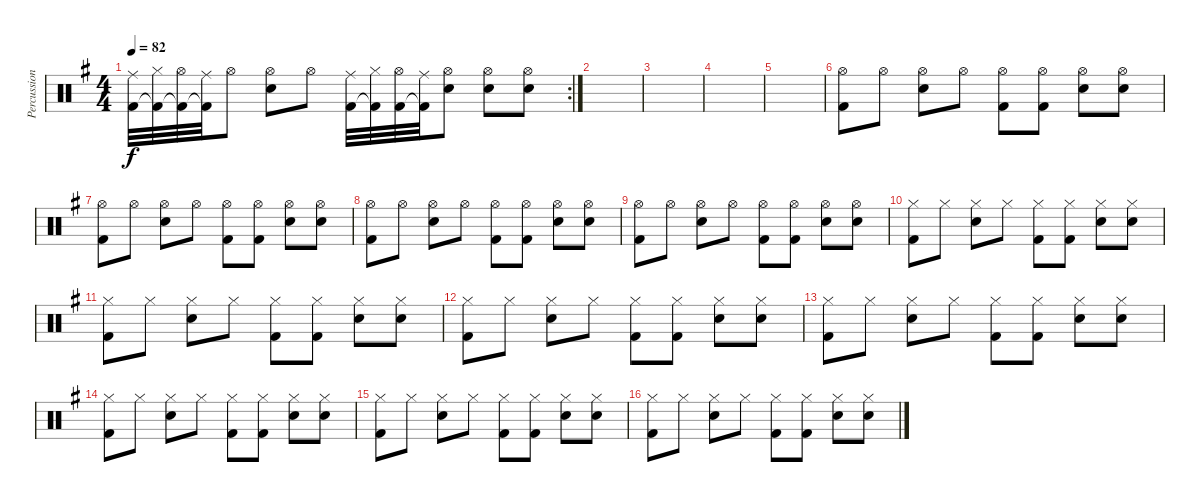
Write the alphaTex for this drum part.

\track ("Percussions" "Percussion") {instrument percussion}
\staff {score}
\articulation defaults
\rc 2
\ts (4 4)
\tempo 82
\clef neutral
\ks g
("Ride (middle)" "Kick (hit) 2").32{dy f} ("Hi-Hat (closed)" "Kick (hit) 2"{t}).32 ("Hi-Hat (open)" "Kick (hit) 2"{t}).32 ("Ride (middle)" "Kick (hit) 2"{t}).32 "Hi-Hat (open)".8 ("Hi-Hat (open)" "Snare (hit) 2").8 "Hi-Hat (open)".8 ("Ride (middle)" "Kick (hit) 2").32 ("Hi-Hat (closed)" "Kick (hit) 2"{t}).32 ("Hi-Hat (open)" "Kick (hit) 2").32 ("Ride (middle)" "Kick (hit) 2"{t}).32 ("Hi-Hat (open)" "Snare (hit) 2").8 ("Hi-Hat (open)" "Snare (hit) 2").8 ("Hi-Hat (open)" "Snare (hit) 2").8 |
|
|
|
|
("Hi-Hat (open)" "Kick (hit) 2").8 "Hi-Hat (open)".8 ("Hi-Hat (open)" "Snare (hit) 2").8 "Hi-Hat (open)".8 ("Hi-Hat (open)" "Kick (hit) 2").8 ("Hi-Hat (open)" "Kick (hit) 2").8 ("Hi-Hat (open)" "Snare (hit) 2").8 ("Hi-Hat (open)" "Snare (hit) 2").8 |
("Hi-Hat (open)" "Kick (hit) 2").8 "Hi-Hat (open)".8 ("Hi-Hat (open)" "Snare (hit) 2").8 "Hi-Hat (open)".8 ("Hi-Hat (open)" "Kick (hit) 2").8 ("Hi-Hat (open)" "Kick (hit) 2").8 ("Hi-Hat (open)" "Snare (hit) 2").8 ("Hi-Hat (open)" "Snare (hit) 2").8 |
("Hi-Hat (open)" "Kick (hit) 2").8 "Hi-Hat (open)".8 ("Hi-Hat (open)" "Snare (hit) 2").8 "Hi-Hat (open)".8 ("Hi-Hat (open)" "Kick (hit) 2").8 ("Hi-Hat (open)" "Kick (hit) 2").8 ("Hi-Hat (open)" "Snare (hit) 2").8 ("Hi-Hat (open)" "Snare (hit) 2").8 |
("Hi-Hat (open)" "Kick (hit) 2").8 "Hi-Hat (open)".8 ("Hi-Hat (open)" "Snare (hit) 2").8 "Hi-Hat (open)".8 ("Hi-Hat (open)" "Kick (hit) 2").8 ("Hi-Hat (open)" "Kick (hit) 2").8 ("Hi-Hat (open)" "Snare (hit) 2").8 ("Hi-Hat (open)" "Snare (hit) 2").8 |
("Hi-Hat (closed)" "Kick (hit) 2").8 "Hi-Hat (closed)".8 ("Hi-Hat (closed)" "Snare (hit) 2").8 "Hi-Hat (closed)".8 ("Hi-Hat (closed)" "Kick (hit) 2").8 ("Hi-Hat (closed)" "Kick (hit) 2").8 ("Hi-Hat (closed)" "Snare (hit) 2").8 ("Hi-Hat (closed)" "Snare (hit) 2").8 |
("Hi-Hat (closed)" "Kick (hit) 2").8 "Hi-Hat (closed)".8 ("Hi-Hat (closed)" "Snare (hit) 2").8 "Hi-Hat (closed)".8 ("Hi-Hat (closed)" "Kick (hit) 2").8 ("Hi-Hat (closed)" "Kick (hit) 2").8 ("Hi-Hat (closed)" "Snare (hit) 2").8 ("Hi-Hat (closed)" "Snare (hit) 2").8 |
("Hi-Hat (closed)" "Kick (hit) 2").8 "Hi-Hat (closed)".8 ("Hi-Hat (closed)" "Snare (hit) 2").8 "Hi-Hat (closed)".8 ("Hi-Hat (closed)" "Kick (hit) 2").8 ("Hi-Hat (closed)" "Kick (hit) 2").8 ("Hi-Hat (closed)" "Snare (hit) 2").8 ("Hi-Hat (closed)" "Snare (hit) 2").8 |
("Hi-Hat (closed)" "Kick (hit) 2").8 "Hi-Hat (closed)".8 ("Hi-Hat (closed)" "Snare (hit) 2").8 "Hi-Hat (closed)".8 ("Hi-Hat (closed)" "Kick (hit) 2").8 ("Hi-Hat (closed)" "Kick (hit) 2").8 ("Hi-Hat (closed)" "Snare (hit) 2").8 ("Hi-Hat (closed)" "Snare (hit) 2").8 |
("Hi-Hat (closed)" "Kick (hit) 2").8 "Hi-Hat (closed)".8 ("Hi-Hat (closed)" "Snare (hit) 2").8 "Hi-Hat (closed)".8 ("Hi-Hat (closed)" "Kick (hit) 2").8 ("Hi-Hat (closed)" "Kick (hit) 2").8 ("Hi-Hat (closed)" "Snare (hit) 2").8 ("Hi-Hat (closed)" "Snare (hit) 2").8 |
("Hi-Hat (closed)" "Kick (hit) 2").8 "Hi-Hat (closed)".8 ("Hi-Hat (closed)" "Snare (hit) 2").8 "Hi-Hat (closed)".8 ("Hi-Hat (closed)" "Kick (hit) 2").8 ("Hi-Hat (closed)" "Kick (hit) 2").8 ("Hi-Hat (closed)" "Snare (hit) 2").8 ("Hi-Hat (closed)" "Snare (hit) 2").8 |
("Hi-Hat (closed)" "Kick (hit) 2").8 "Hi-Hat (closed)".8 ("Hi-Hat (closed)" "Snare (hit) 2").8 "Hi-Hat (closed)".8 ("Hi-Hat (closed)" "Kick (hit) 2").8 ("Hi-Hat (closed)" "Kick (hit) 2").8 ("Hi-Hat (closed)" "Snare (hit) 2").8 ("Hi-Hat (closed)" "Snare (hit) 2").8
